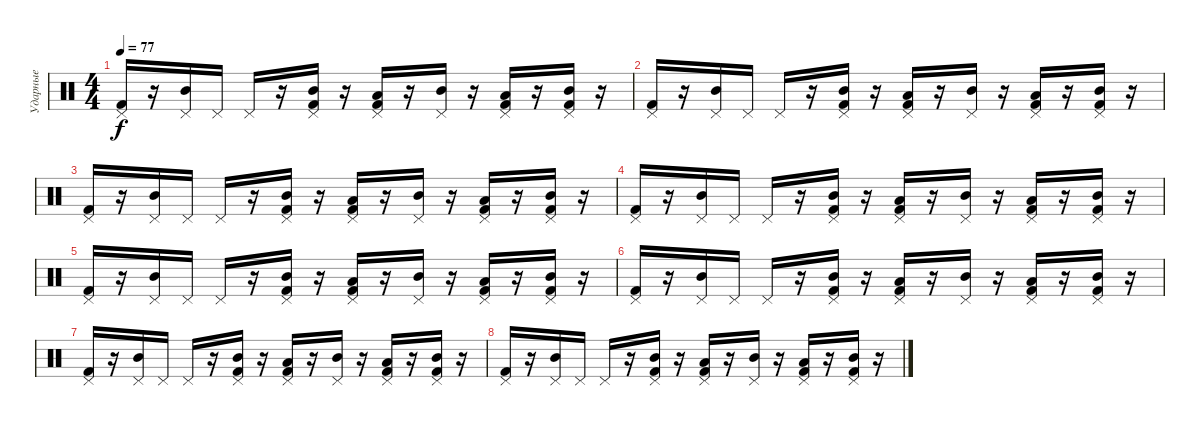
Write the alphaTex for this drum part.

\track ("Ударные" "Ударные") {instrument percussion}
\staff {score}
\articulation defaults
\ts (4 4)
\tempo 77
\clef neutral
\ks c
("Pedal Hi-Hat (hit)" "Kick (hit) 2").16{dy f} r.16 ("Pedal Hi-Hat (hit)" "Mid Tom (hit)").16 "Pedal Hi-Hat (hit)".16 "Pedal Hi-Hat (hit)".16 r.16 ("Pedal Hi-Hat (hit)" "Mid Tom (hit)" "Kick (hit) 2").16 r.16 ("Pedal Hi-Hat (hit)" "Low Tom (hit)" "Kick (hit) 2").16 r.16 ("Pedal Hi-Hat (hit)" "Mid Tom (hit)").16 r.16 ("Pedal Hi-Hat (hit)" "Low Tom (hit)" "Kick (hit) 2").16 r.16 ("Pedal Hi-Hat (hit)" "Mid Tom (hit)" "Kick (hit) 2").16 r.16 |
("Pedal Hi-Hat (hit)" "Kick (hit) 2").16 r.16 ("Pedal Hi-Hat (hit)" "Mid Tom (hit)").16 "Pedal Hi-Hat (hit)".16 "Pedal Hi-Hat (hit)".16 r.16 ("Pedal Hi-Hat (hit)" "Mid Tom (hit)" "Kick (hit) 2").16 r.16 ("Pedal Hi-Hat (hit)" "Low Tom (hit)" "Kick (hit) 2").16 r.16 ("Pedal Hi-Hat (hit)" "Mid Tom (hit)").16 r.16 ("Pedal Hi-Hat (hit)" "Low Tom (hit)" "Kick (hit) 2").16 r.16 ("Pedal Hi-Hat (hit)" "Mid Tom (hit)" "Kick (hit) 2").16 r.16 |
("Pedal Hi-Hat (hit)" "Kick (hit) 2").16 r.16 ("Pedal Hi-Hat (hit)" "Mid Tom (hit)").16 "Pedal Hi-Hat (hit)".16 "Pedal Hi-Hat (hit)".16 r.16 ("Pedal Hi-Hat (hit)" "Mid Tom (hit)" "Kick (hit) 2").16 r.16 ("Pedal Hi-Hat (hit)" "Low Tom (hit)" "Kick (hit) 2").16 r.16 ("Pedal Hi-Hat (hit)" "Mid Tom (hit)").16 r.16 ("Pedal Hi-Hat (hit)" "Low Tom (hit)" "Kick (hit) 2").16 r.16 ("Pedal Hi-Hat (hit)" "Mid Tom (hit)" "Kick (hit) 2").16 r.16 |
("Pedal Hi-Hat (hit)" "Kick (hit) 2").16{volume 0} r.16 ("Pedal Hi-Hat (hit)" "Mid Tom (hit)").16 "Pedal Hi-Hat (hit)".16 "Pedal Hi-Hat (hit)".16 r.16 ("Pedal Hi-Hat (hit)" "Mid Tom (hit)" "Kick (hit) 2").16 r.16 ("Pedal Hi-Hat (hit)" "Low Tom (hit)" "Kick (hit) 2").16 r.16 ("Pedal Hi-Hat (hit)" "Mid Tom (hit)").16 r.16 ("Pedal Hi-Hat (hit)" "Low Tom (hit)" "Kick (hit) 2").16 r.16 ("Pedal Hi-Hat (hit)" "Mid Tom (hit)" "Kick (hit) 2").16 r.16 |
("Pedal Hi-Hat (hit)" "Kick (hit) 2").16 r.16 ("Pedal Hi-Hat (hit)" "Mid Tom (hit)").16 "Pedal Hi-Hat (hit)".16 "Pedal Hi-Hat (hit)".16 r.16 ("Pedal Hi-Hat (hit)" "Mid Tom (hit)" "Kick (hit) 2").16 r.16 ("Pedal Hi-Hat (hit)" "Low Tom (hit)" "Kick (hit) 2").16 r.16 ("Pedal Hi-Hat (hit)" "Mid Tom (hit)").16 r.16 ("Pedal Hi-Hat (hit)" "Low Tom (hit)" "Kick (hit) 2").16 r.16 ("Pedal Hi-Hat (hit)" "Mid Tom (hit)" "Kick (hit) 2").16 r.16 |
("Pedal Hi-Hat (hit)" "Kick (hit) 2").16 r.16 ("Pedal Hi-Hat (hit)" "Mid Tom (hit)").16 "Pedal Hi-Hat (hit)".16 "Pedal Hi-Hat (hit)".16 r.16 ("Pedal Hi-Hat (hit)" "Mid Tom (hit)" "Kick (hit) 2").16 r.16 ("Pedal Hi-Hat (hit)" "Low Tom (hit)" "Kick (hit) 2").16 r.16 ("Pedal Hi-Hat (hit)" "Mid Tom (hit)").16 r.16 ("Pedal Hi-Hat (hit)" "Low Tom (hit)" "Kick (hit) 2").16 r.16 ("Pedal Hi-Hat (hit)" "Mid Tom (hit)" "Kick (hit) 2").16 r.16 |
("Pedal Hi-Hat (hit)" "Kick (hit) 2").16 r.16 ("Pedal Hi-Hat (hit)" "Mid Tom (hit)").16 "Pedal Hi-Hat (hit)".16 "Pedal Hi-Hat (hit)".16 r.16 ("Pedal Hi-Hat (hit)" "Mid Tom (hit)" "Kick (hit) 2").16 r.16 ("Pedal Hi-Hat (hit)" "Low Tom (hit)" "Kick (hit) 2").16 r.16 ("Pedal Hi-Hat (hit)" "Mid Tom (hit)").16 r.16 ("Pedal Hi-Hat (hit)" "Low Tom (hit)" "Kick (hit) 2").16 r.16 ("Pedal Hi-Hat (hit)" "Mid Tom (hit)" "Kick (hit) 2").16 r.16 |
("Pedal Hi-Hat (hit)" "Kick (hit) 2").16 r.16 ("Pedal Hi-Hat (hit)" "Mid Tom (hit)").16 "Pedal Hi-Hat (hit)".16 "Pedal Hi-Hat (hit)".16 r.16 ("Pedal Hi-Hat (hit)" "Mid Tom (hit)" "Kick (hit) 2").16 r.16 ("Pedal Hi-Hat (hit)" "Low Tom (hit)" "Kick (hit) 2").16 r.16 ("Pedal Hi-Hat (hit)" "Mid Tom (hit)").16 r.16 ("Pedal Hi-Hat (hit)" "Low Tom (hit)" "Kick (hit) 2").16 r.16 ("Pedal Hi-Hat (hit)" "Mid Tom (hit)" "Kick (hit) 2").16 r.16
